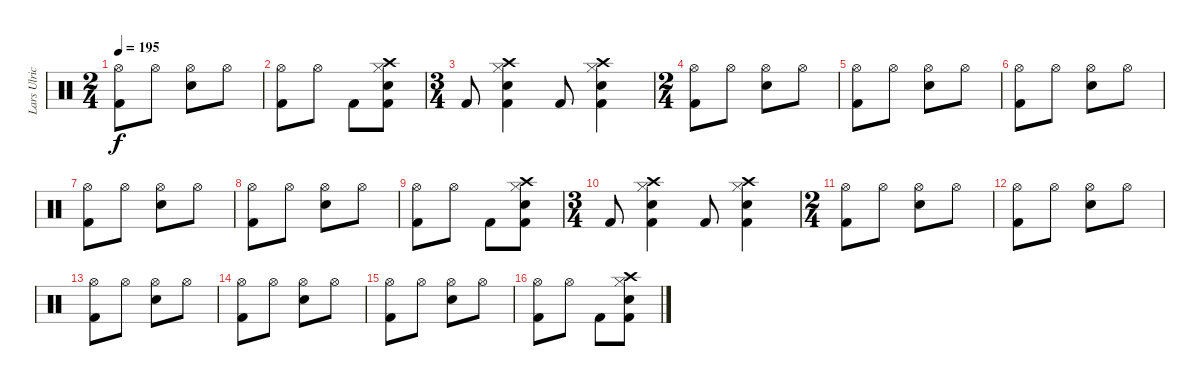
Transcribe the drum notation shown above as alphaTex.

\track ("Lars Ulrich" "Lars Ulric") {instrument percussion}
\staff {score}
\articulation defaults
\ts (2 4)
\tempo 195
\clef neutral
\ks c
("Kick (hit) 2" "Hi-Hat (open)").8{dy f} "Hi-Hat (open)".8 ("Snare (hit) 2" "Hi-Hat (open)").8 "Hi-Hat (open)".8 |
("Kick (hit) 2" "Hi-Hat (open)").8 "Hi-Hat (open)".8 "Kick (hit) 2".8 ("Kick (hit) 2" "Snare (hit) 2" "Hi-Hat (closed)" "Crash high (hit)").8 |
\ts (3 4)
"Kick (hit) 2".8 ("Kick (hit) 2" "Snare (hit) 2" "Hi-Hat (closed)" "Crash high (hit)").4 "Kick (hit) 2".8 ("Kick (hit) 2" "Snare (hit) 2" "Hi-Hat (closed)" "Crash high (hit)").4 |
\ts (2 4)
("Kick (hit) 2" "Hi-Hat (open)").8 "Hi-Hat (open)".8 ("Snare (hit) 2" "Hi-Hat (open)").8 "Hi-Hat (open)".8 |
("Kick (hit) 2" "Hi-Hat (open)").8 "Hi-Hat (open)".8 ("Snare (hit) 2" "Hi-Hat (open)").8 "Hi-Hat (open)".8 |
("Kick (hit) 2" "Hi-Hat (open)").8 "Hi-Hat (open)".8 ("Snare (hit) 2" "Hi-Hat (open)").8 "Hi-Hat (open)".8 |
("Kick (hit) 2" "Hi-Hat (open)").8 "Hi-Hat (open)".8 ("Snare (hit) 2" "Hi-Hat (open)").8 "Hi-Hat (open)".8 |
("Kick (hit) 2" "Hi-Hat (open)").8 "Hi-Hat (open)".8 ("Snare (hit) 2" "Hi-Hat (open)").8 "Hi-Hat (open)".8 |
("Kick (hit) 2" "Hi-Hat (open)").8 "Hi-Hat (open)".8 "Kick (hit) 2".8 ("Kick (hit) 2" "Snare (hit) 2" "Hi-Hat (closed)" "Crash high (hit)").8 |
\ts (3 4)
"Kick (hit) 2".8 ("Kick (hit) 2" "Snare (hit) 2" "Hi-Hat (closed)" "Crash high (hit)").4 "Kick (hit) 2".8 ("Kick (hit) 2" "Snare (hit) 2" "Hi-Hat (closed)" "Crash high (hit)").4 |
\ts (2 4)
("Kick (hit) 2" "Hi-Hat (open)").8 "Hi-Hat (open)".8 ("Snare (hit) 2" "Hi-Hat (open)").8 "Hi-Hat (open)".8 |
("Kick (hit) 2" "Hi-Hat (open)").8 "Hi-Hat (open)".8 ("Snare (hit) 2" "Hi-Hat (open)").8 "Hi-Hat (open)".8 |
("Kick (hit) 2" "Hi-Hat (open)").8 "Hi-Hat (open)".8 ("Snare (hit) 2" "Hi-Hat (open)").8 "Hi-Hat (open)".8 |
("Kick (hit) 2" "Hi-Hat (open)").8 "Hi-Hat (open)".8 ("Snare (hit) 2" "Hi-Hat (open)").8 "Hi-Hat (open)".8 |
("Kick (hit) 2" "Hi-Hat (open)").8 "Hi-Hat (open)".8 ("Snare (hit) 2" "Hi-Hat (open)").8 "Hi-Hat (open)".8 |
("Kick (hit) 2" "Hi-Hat (open)").8 "Hi-Hat (open)".8 "Kick (hit) 2".8 ("Kick (hit) 2" "Snare (hit) 2" "Hi-Hat (closed)" "Crash high (hit)").8
